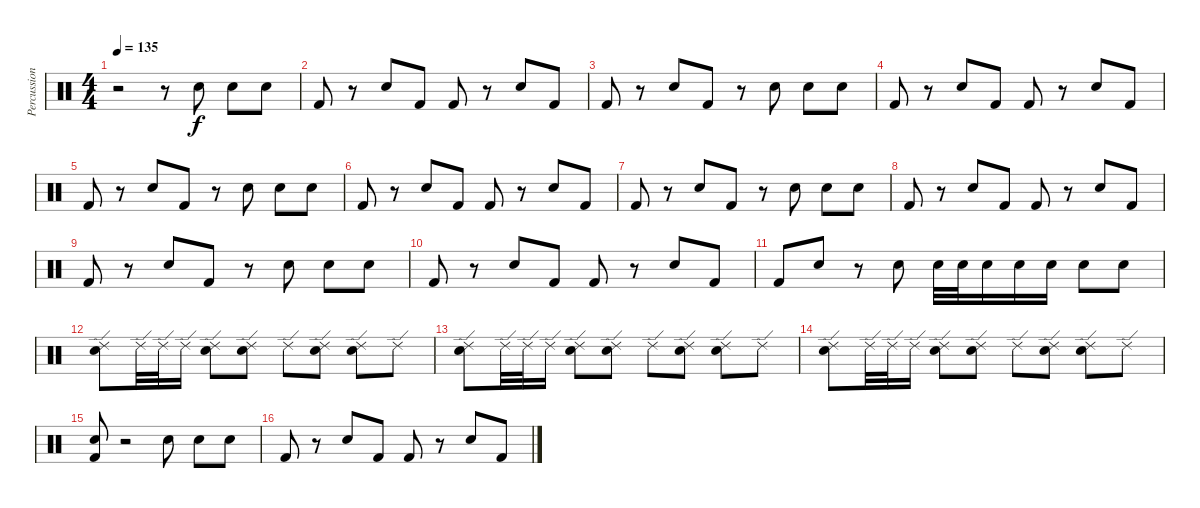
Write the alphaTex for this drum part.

\track ("Percussions" "Percussion") {instrument percussion}
\staff {score}
\articulation defaults
\ts (4 4)
\tempo 135
\clef neutral
\ks c
r.2{dy f} r.8 "Snare (hit) 2".8 "Snare (hit) 2".8 "Snare (hit) 2".8 |
"Kick (hit) 2".8 r.8 "Snare (hit) 2".8 "Kick (hit) 2".8 "Kick (hit) 2".8 r.8 "Snare (hit) 2".8 "Kick (hit) 2".8 |
"Kick (hit) 2".8 r.8 "Snare (hit) 2".8 "Kick (hit) 2".8 r.8 "Snare (hit) 2".8 "Snare (hit) 2".8 "Snare (hit) 2".8 |
"Kick (hit) 2".8 r.8 "Snare (hit) 2".8 "Kick (hit) 2".8 "Kick (hit) 2".8 r.8 "Snare (hit) 2".8 "Kick (hit) 2".8 |
"Kick (hit) 2".8 r.8 "Snare (hit) 2".8 "Kick (hit) 2".8 r.8 "Snare (hit) 2".8 "Snare (hit) 2".8 "Snare (hit) 2".8 |
"Kick (hit) 2".8 r.8 "Snare (hit) 2".8 "Kick (hit) 2".8 "Kick (hit) 2".8 r.8 "Snare (hit) 2".8 "Kick (hit) 2".8 |
"Kick (hit) 2".8 r.8 "Snare (hit) 2".8 "Kick (hit) 2".8 r.8 "Snare (hit) 2".8 "Snare (hit) 2".8 "Snare (hit) 2".8 |
"Kick (hit) 2".8 r.8 "Snare (hit) 2".8 "Kick (hit) 2".8 "Kick (hit) 2".8 r.8 "Snare (hit) 2".8 "Kick (hit) 2".8 |
"Kick (hit) 2".8 r.8 "Snare (hit) 2".8 "Kick (hit) 2".8 r.8 "Snare (hit) 2".8 "Snare (hit) 2".8 "Snare (hit) 2".8 |
"Kick (hit) 2".8 r.8 "Snare (hit) 2".8 "Kick (hit) 2".8 "Kick (hit) 2".8 r.8 "Snare (hit) 2".8 "Kick (hit) 2".8 |
"Kick (hit) 2".8 "Snare (hit) 2".8 r.8 "Snare (hit) 2".8 "Snare (hit) 2".32 "Snare (hit) 2".32 "Snare (hit) 2".16 "Snare (hit) 2".16 "Snare (hit) 2".16 "Snare (hit) 2".8 "Snare (hit) 2".8 |
("Snare (hit) 2" "Ride (edge) 2").8 "Ride (edge) 2".32 "Ride (edge) 2".32 "Ride (edge) 2".16 ("Snare (hit) 2" "Ride (edge) 2").8 ("Snare (hit) 2" "Ride (edge) 2").8 "Ride (edge) 2".8 ("Snare (hit) 2" "Ride (edge) 2").8 ("Snare (hit) 2" "Ride (edge) 2").8 "Ride (edge) 2".8 |
("Snare (hit) 2" "Ride (edge) 2").8 "Ride (edge) 2".32 "Ride (edge) 2".32 "Ride (edge) 2".16 ("Snare (hit) 2" "Ride (edge) 2").8 ("Snare (hit) 2" "Ride (edge) 2").8 "Ride (edge) 2".8 ("Snare (hit) 2" "Ride (edge) 2").8 ("Snare (hit) 2" "Ride (edge) 2").8 "Ride (edge) 2".8 |
("Snare (hit) 2" "Ride (edge) 2").8 "Ride (edge) 2".32 "Ride (edge) 2".32 "Ride (edge) 2".16 ("Snare (hit) 2" "Ride (edge) 2").8 ("Snare (hit) 2" "Ride (edge) 2").8 "Ride (edge) 2".8 ("Snare (hit) 2" "Ride (edge) 2").8 ("Snare (hit) 2" "Ride (edge) 2").8 "Ride (edge) 2".8 |
("Snare (hit) 2" "Kick (hit) 2").8 r.2 "Snare (hit) 2".8 "Snare (hit) 2".8 "Snare (hit) 2".8 |
"Kick (hit) 2".8 r.8 "Snare (hit) 2".8 "Kick (hit) 2".8 "Kick (hit) 2".8 r.8 "Snare (hit) 2".8 "Kick (hit) 2".8
